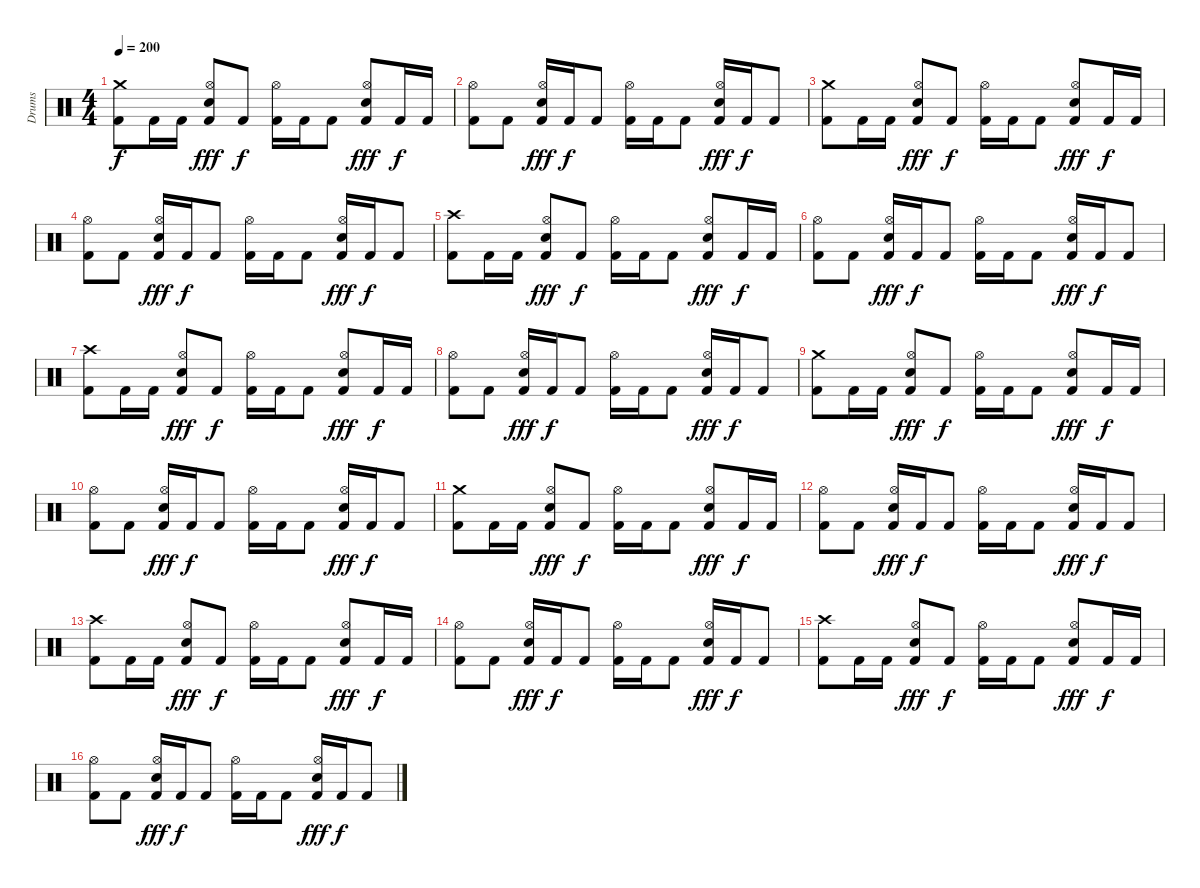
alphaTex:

\track ("Drums" "Drums") {instrument percussion}
\staff {score}
\articulation defaults
\ts (4 4)
\tempo 200
\clef neutral
\ks c
("Crash medium (hit)" "Kick (hit) 2").8{dy f} "Kick (hit) 2".16 "Kick (hit) 2".16 ("Hi-Hat (open)" "Snare (hit) 2" "Kick (hit) 2").8{dy fff} "Kick (hit) 2".8{dy f} ("Hi-Hat (open)" "Kick (hit) 2").16 "Kick (hit) 2".16 "Kick (hit) 2".8 ("Hi-Hat (open)" "Snare (hit) 2" "Kick (hit) 2").8{dy fff} "Kick (hit) 2".16{dy f} "Kick (hit) 2".16 |
("Hi-Hat (open)" "Kick (hit) 2").8 "Kick (hit) 2".8 ("Hi-Hat (open)" "Snare (hit) 2" "Kick (hit) 2").16{dy fff} "Kick (hit) 2".16{dy f} "Kick (hit) 2".8 ("Hi-Hat (open)" "Kick (hit) 2").16 "Kick (hit) 2".16 "Kick (hit) 2".8 ("Hi-Hat (open)" "Snare (hit) 2" "Kick (hit) 2").16{dy fff} "Kick (hit) 2".16{dy f} "Kick (hit) 2".8 |
("Crash medium (hit)" "Kick (hit) 2").8 "Kick (hit) 2".16 "Kick (hit) 2".16 ("Hi-Hat (open)" "Snare (hit) 2" "Kick (hit) 2").8{dy fff} "Kick (hit) 2".8{dy f} ("Hi-Hat (open)" "Kick (hit) 2").16 "Kick (hit) 2".16 "Kick (hit) 2".8 ("Hi-Hat (open)" "Snare (hit) 2" "Kick (hit) 2").8{dy fff} "Kick (hit) 2".16{dy f} "Kick (hit) 2".16 |
("Hi-Hat (open)" "Kick (hit) 2").8 "Kick (hit) 2".8 ("Hi-Hat (open)" "Snare (hit) 2" "Kick (hit) 2").16{dy fff} "Kick (hit) 2".16{dy f} "Kick (hit) 2".8 ("Hi-Hat (open)" "Kick (hit) 2").16 "Kick (hit) 2".16 "Kick (hit) 2".8 ("Hi-Hat (open)" "Snare (hit) 2" "Kick (hit) 2").16{dy fff} "Kick (hit) 2".16{dy f} "Kick (hit) 2".8 |
("Crash high (hit)" "Kick (hit) 2").8{volume 9} "Kick (hit) 2".16 "Kick (hit) 2".16 ("Hi-Hat (open)" "Snare (hit) 2" "Kick (hit) 2").8{dy fff} "Kick (hit) 2".8{dy f} ("Hi-Hat (open)" "Kick (hit) 2").16 "Kick (hit) 2".16 "Kick (hit) 2".8 ("Hi-Hat (open)" "Snare (hit) 2" "Kick (hit) 2").8{dy fff} "Kick (hit) 2".16{dy f} "Kick (hit) 2".16 |
("Hi-Hat (open)" "Kick (hit) 2").8 "Kick (hit) 2".8 ("Hi-Hat (open)" "Snare (hit) 2" "Kick (hit) 2").16{dy fff} "Kick (hit) 2".16{dy f} "Kick (hit) 2".8 ("Hi-Hat (open)" "Kick (hit) 2").16 "Kick (hit) 2".16 "Kick (hit) 2".8 ("Hi-Hat (open)" "Snare (hit) 2" "Kick (hit) 2").16{dy fff} "Kick (hit) 2".16{dy f} "Kick (hit) 2".8 |
("Crash high (hit)" "Kick (hit) 2").8{volume 8} "Kick (hit) 2".16 "Kick (hit) 2".16 ("Hi-Hat (open)" "Snare (hit) 2" "Kick (hit) 2").8{dy fff} "Kick (hit) 2".8{dy f} ("Hi-Hat (open)" "Kick (hit) 2").16 "Kick (hit) 2".16 "Kick (hit) 2".8 ("Hi-Hat (open)" "Snare (hit) 2" "Kick (hit) 2").8{dy fff} "Kick (hit) 2".16{dy f} "Kick (hit) 2".16 |
("Hi-Hat (open)" "Kick (hit) 2").8 "Kick (hit) 2".8 ("Hi-Hat (open)" "Snare (hit) 2" "Kick (hit) 2").16{dy fff} "Kick (hit) 2".16{dy f} "Kick (hit) 2".8 ("Hi-Hat (open)" "Kick (hit) 2").16 "Kick (hit) 2".16 "Kick (hit) 2".8 ("Hi-Hat (open)" "Snare (hit) 2" "Kick (hit) 2").16{dy fff} "Kick (hit) 2".16{dy f} "Kick (hit) 2".8 |
("Crash medium (hit)" "Kick (hit) 2").8{volume 6} "Kick (hit) 2".16 "Kick (hit) 2".16 ("Hi-Hat (open)" "Snare (hit) 2" "Kick (hit) 2").8{dy fff} "Kick (hit) 2".8{dy f} ("Hi-Hat (open)" "Kick (hit) 2").16 "Kick (hit) 2".16 "Kick (hit) 2".8 ("Hi-Hat (open)" "Snare (hit) 2" "Kick (hit) 2").8{dy fff} "Kick (hit) 2".16{dy f} "Kick (hit) 2".16 |
("Hi-Hat (open)" "Kick (hit) 2").8 "Kick (hit) 2".8 ("Hi-Hat (open)" "Snare (hit) 2" "Kick (hit) 2").16{dy fff} "Kick (hit) 2".16{dy f} "Kick (hit) 2".8 ("Hi-Hat (open)" "Kick (hit) 2").16 "Kick (hit) 2".16 "Kick (hit) 2".8 ("Hi-Hat (open)" "Snare (hit) 2" "Kick (hit) 2").16{dy fff} "Kick (hit) 2".16{dy f} "Kick (hit) 2".8 |
("Crash medium (hit)" "Kick (hit) 2").8{volume 5} "Kick (hit) 2".16 "Kick (hit) 2".16 ("Hi-Hat (open)" "Snare (hit) 2" "Kick (hit) 2").8{dy fff} "Kick (hit) 2".8{dy f} ("Hi-Hat (open)" "Kick (hit) 2").16 "Kick (hit) 2".16 "Kick (hit) 2".8 ("Hi-Hat (open)" "Snare (hit) 2" "Kick (hit) 2").8{dy fff} "Kick (hit) 2".16{dy f} "Kick (hit) 2".16 |
("Hi-Hat (open)" "Kick (hit) 2").8 "Kick (hit) 2".8 ("Hi-Hat (open)" "Snare (hit) 2" "Kick (hit) 2").16{dy fff} "Kick (hit) 2".16{dy f} "Kick (hit) 2".8 ("Hi-Hat (open)" "Kick (hit) 2").16 "Kick (hit) 2".16 "Kick (hit) 2".8 ("Hi-Hat (open)" "Snare (hit) 2" "Kick (hit) 2").16{dy fff} "Kick (hit) 2".16{dy f} "Kick (hit) 2".8 |
("Crash high (hit)" "Kick (hit) 2").8{volume 4} "Kick (hit) 2".16 "Kick (hit) 2".16 ("Hi-Hat (open)" "Snare (hit) 2" "Kick (hit) 2").8{dy fff} "Kick (hit) 2".8{dy f} ("Hi-Hat (open)" "Kick (hit) 2").16 "Kick (hit) 2".16 "Kick (hit) 2".8 ("Hi-Hat (open)" "Snare (hit) 2" "Kick (hit) 2").8{dy fff} "Kick (hit) 2".16{dy f} "Kick (hit) 2".16 |
("Hi-Hat (open)" "Kick (hit) 2").8 "Kick (hit) 2".8 ("Hi-Hat (open)" "Snare (hit) 2" "Kick (hit) 2").16{dy fff} "Kick (hit) 2".16{dy f} "Kick (hit) 2".8 ("Hi-Hat (open)" "Kick (hit) 2").16 "Kick (hit) 2".16 "Kick (hit) 2".8 ("Hi-Hat (open)" "Snare (hit) 2" "Kick (hit) 2").16{dy fff} "Kick (hit) 2".16{dy f} "Kick (hit) 2".8 |
("Crash high (hit)" "Kick (hit) 2").8{volume 2} "Kick (hit) 2".16 "Kick (hit) 2".16 ("Hi-Hat (open)" "Snare (hit) 2" "Kick (hit) 2").8{dy fff} "Kick (hit) 2".8{dy f} ("Hi-Hat (open)" "Kick (hit) 2").16 "Kick (hit) 2".16 "Kick (hit) 2".8 ("Hi-Hat (open)" "Snare (hit) 2" "Kick (hit) 2").8{dy fff} "Kick (hit) 2".16{dy f} "Kick (hit) 2".16 |
("Hi-Hat (open)" "Kick (hit) 2").8 "Kick (hit) 2".8 ("Hi-Hat (open)" "Snare (hit) 2" "Kick (hit) 2").16{dy fff} "Kick (hit) 2".16{dy f} "Kick (hit) 2".8 ("Hi-Hat (open)" "Kick (hit) 2").16 "Kick (hit) 2".16 "Kick (hit) 2".8 ("Hi-Hat (open)" "Snare (hit) 2" "Kick (hit) 2").16{dy fff} "Kick (hit) 2".16{dy f} "Kick (hit) 2".8
